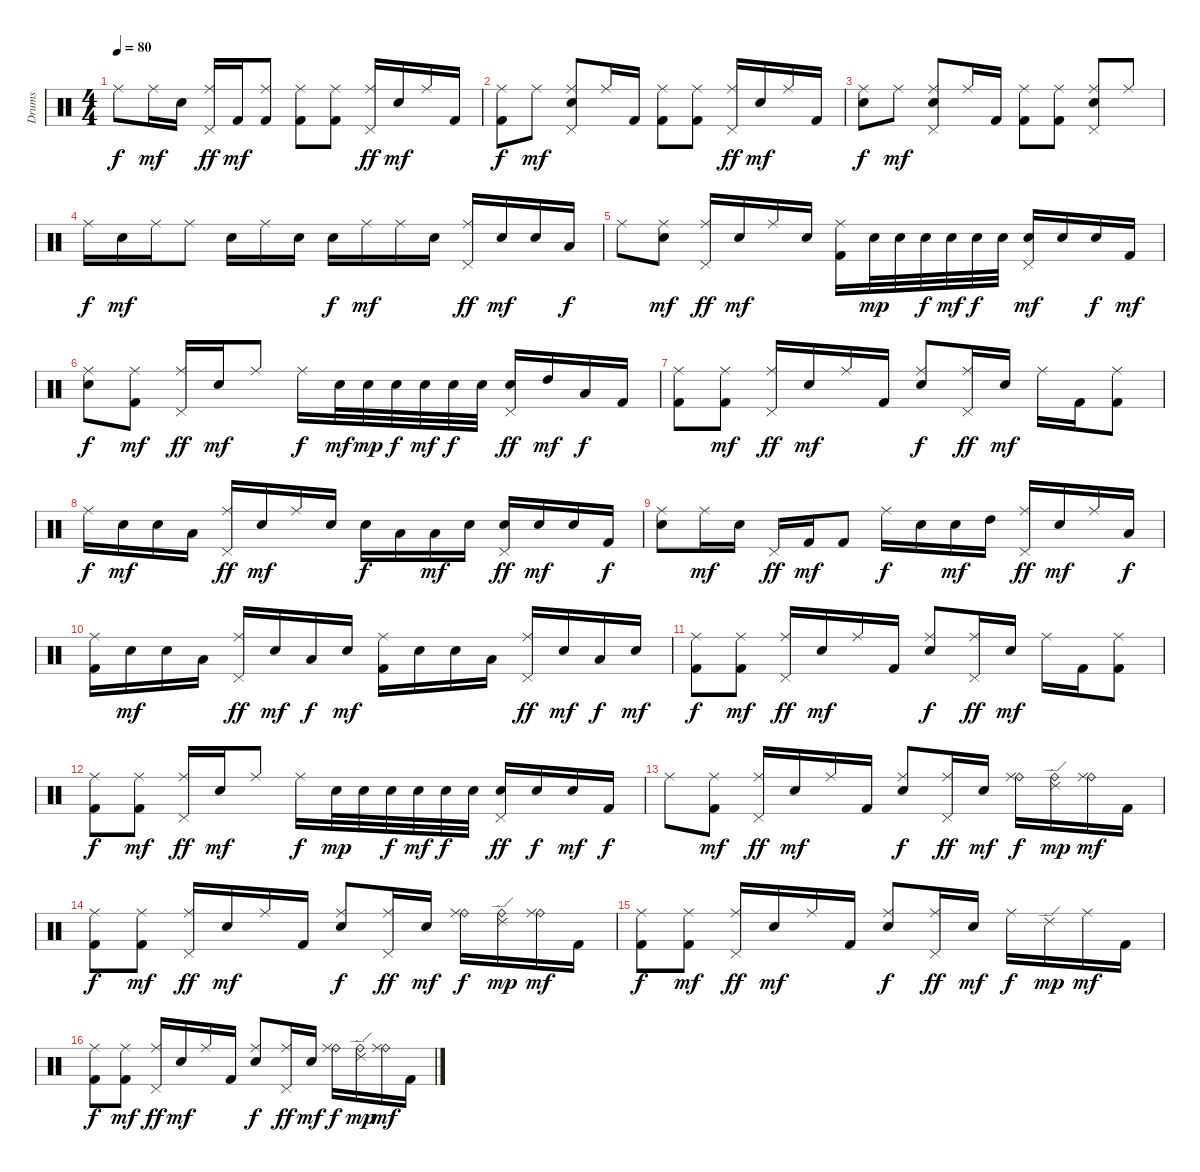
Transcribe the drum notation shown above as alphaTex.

\track ("Drums" "Drums") {instrument percussion}
\staff {score}
\articulation defaults
\ts (4 4)
\tempo 80
\clef neutral
\ks c "Ride (middle)".8{dy f} "Ride (middle)".16{dy mf} "Electric Snare (hit)".16
("Ride (middle)" "Pedal Hi-Hat (hit)").16{dy ff} "Kick (hit) 2".16{dy mf} ("Ride (middle)" "Kick (hit) 2").8 ("Ride (middle)" "Kick (hit) 2").8 ("Ride (middle)" "Kick (hit) 2").8 ("Ride (middle)" "Pedal Hi-Hat (hit)").16{dy ff} "Electric Snare (hit)".16{dy mf} "Ride (middle)".16 "Kick (hit) 2".16 |
("Ride (middle)" "Kick (hit) 2").8{dy f} "Ride (middle)".8{dy mf} ("Ride (middle)" "Pedal Hi-Hat (hit)" "Electric Snare (hit)").8 "Ride (middle)".16 "Kick (hit) 2".16 ("Ride (middle)" "Kick (hit) 2").8 ("Ride (middle)" "Kick (hit) 2").8 ("Ride (middle)" "Pedal Hi-Hat (hit)").16{dy ff} "Electric Snare (hit)".16{dy mf} "Ride (middle)".16 "Kick (hit) 2".16 |
("Ride (middle)" "Electric Snare (hit)").8{dy f} "Ride (middle)".8{dy mf} ("Ride (middle)" "Pedal Hi-Hat (hit)" "Electric Snare (hit)").8 "Ride (middle)".16 "Kick (hit) 2".16 ("Ride (middle)" "Kick (hit) 2").8 ("Ride (middle)" "Kick (hit) 2").8 ("Ride (middle)" "Pedal Hi-Hat (hit)" "Electric Snare (hit)").8 "Ride (middle)".8 |
"Ride (middle)".16{dy f} "Electric Snare (hit)".16{dy mf} "Ride (middle)".16 "Ride (middle)".8 "Electric Snare (hit)".16 "Ride (middle)".16 "Electric Snare (hit)".16 "Electric Snare (hit)".16{dy f} "Ride (middle)".16{dy mf} "Ride (middle)".16 "Electric Snare (hit)".16 ("Ride (middle)" "Pedal Hi-Hat (hit)").16{dy ff} "Electric Snare (hit)".16{dy mf} "Electric Snare (hit)".16 "Low Tom (hit)".16{dy f} |
"Ride (middle)".8 ("Ride (middle)" "Electric Snare (hit)").8{dy mf} ("Ride (middle)" "Pedal Hi-Hat (hit)").16{dy ff} "Electric Snare (hit)".16{dy mf} "Ride (middle)".16 "Electric Snare (hit)".16 ("Ride (middle)" "Kick (hit) 2").16 "Electric Snare (hit)".32{dy mp} "Electric Snare (hit)".32 "Electric Snare (hit)".32{dy f} "Electric Snare (hit)".32{dy mf} "Electric Snare (hit)".32{dy f} "Electric Snare (hit)".32 ("Pedal Hi-Hat (hit)" "Electric Snare (hit)").16{dy mf} "Electric Snare (hit)".16 "Electric Snare (hit)".16{dy f} "Kick (hit) 2".16{dy mf} |
("Ride (middle)" "Electric Snare (hit)").8{dy f} ("Ride (middle)" "Kick (hit) 2").8{dy mf} ("Ride (middle)" "Pedal Hi-Hat (hit)").16{dy ff} "Electric Snare (hit)".16{dy mf} "Ride (middle)".8 "Ride (middle)".16{dy f} "Electric Snare (hit)".32{dy mf} "Electric Snare (hit)".32{dy mp} "Electric Snare (hit)".32{dy f} "Electric Snare (hit)".32{dy mf} "Electric Snare (hit)".32{dy f} "Electric Snare (hit)".32 ("Pedal Hi-Hat (hit)" "Electric Snare (hit)").16{dy ff} "High Tom (hit)".16{dy mf} "Low Tom (hit)".16{dy f} "Kick (hit) 2".16 |
("Ride (middle)" "Kick (hit) 2").8 ("Ride (middle)" "Kick (hit) 2").8{dy mf} ("Ride (middle)" "Pedal Hi-Hat (hit)").16{dy ff} "Electric Snare (hit)".16{dy mf} "Ride (middle)".16 "Kick (hit) 2".16 ("Ride (middle)" "Electric Snare (hit)").8{dy f} ("Ride (middle)" "Pedal Hi-Hat (hit)").16{dy ff} "Electric Snare (hit)".16{dy mf} "Ride (middle)".16 "Kick (hit) 2".16 ("Ride (middle)" "Kick (hit) 2").8 |
"Ride (middle)".16{dy f} "Electric Snare (hit)".16{dy mf} "Electric Snare (hit)".16 "Low Tom (hit)".16 ("Ride (middle)" "Pedal Hi-Hat (hit)").16{dy ff} "Electric Snare (hit)".16{dy mf} "Ride (middle)".16 "Electric Snare (hit)".16 "Electric Snare (hit)".16{dy f} "Low Floor Tom (hit)".16 "Low Tom (hit)".16{dy mf} "Electric Snare (hit)".16 ("Pedal Hi-Hat (hit)" "Electric Snare (hit)").16{dy ff} "Electric Snare (hit)".16{dy mf} "Electric Snare (hit)".16 "Kick (hit) 2".16{dy f} |
("Ride (middle)" "Electric Snare (hit)").8 "Ride (middle)".16{dy mf} "Electric Snare (hit)".16 "Pedal Hi-Hat (hit)".16{dy ff} "Kick (hit) 2".16{dy mf} "Kick (hit) 2".8 "Ride (middle)".16{dy f} "Electric Snare (hit)".16 "Electric Snare (hit)".16{dy mf} "High Tom (hit)".16 ("Ride (middle)" "Pedal Hi-Hat (hit)").16{dy ff} "Electric Snare (hit)".16{dy mf} "Ride (middle)".16 "Low Floor Tom (hit)".16{dy f} |
("Ride (middle)" "Kick (hit) 2").16 "Electric Snare (hit)".16{dy mf} "Electric Snare (hit)".16 "Low Tom (hit)".16 ("Ride (middle)" "Pedal Hi-Hat (hit)").16{dy ff} "Electric Snare (hit)".16{dy mf} "Low Floor Tom (hit)".16{dy f} "Electric Snare (hit)".16{dy mf} ("Ride (middle)" "Kick (hit) 2").16 "Electric Snare (hit)".16 "Electric Snare (hit)".16 "Low Tom (hit)".16 ("Ride (middle)" "Pedal Hi-Hat (hit)").16{dy ff} "Electric Snare (hit)".16{dy mf} "Low Floor Tom (hit)".16{dy f} "Electric Snare (hit)".16{dy mf} |
("Ride (middle)" "Kick (hit) 2").8{dy f} ("Ride (middle)" "Kick (hit) 2").8{dy mf} ("Ride (middle)" "Pedal Hi-Hat (hit)").16{dy ff} "Electric Snare (hit)".16{dy mf} "Ride (middle)".16 "Kick (hit) 2".16 ("Ride (middle)" "Electric Snare (hit)").8{dy f} ("Ride (middle)" "Pedal Hi-Hat (hit)").16{dy ff} "Electric Snare (hit)".16{dy mf} "Ride (middle)".16 "Kick (hit) 2".16 ("Ride (middle)" "Kick (hit) 2").8 |
("Ride (middle)" "Kick (hit) 2").8{dy f} ("Ride (middle)" "Kick (hit) 2").8{dy mf} ("Ride (middle)" "Pedal Hi-Hat (hit)").16{dy ff} "Electric Snare (hit)".16{dy mf} "Ride (middle)".8 "Ride (middle)".16{dy f} "Electric Snare (hit)".32{dy mp} "Electric Snare (hit)".32 "Electric Snare (hit)".32{dy f} "Electric Snare (hit)".32{dy mf} "Electric Snare (hit)".32{dy f} "Electric Snare (hit)".32 ("Pedal Hi-Hat (hit)" "Electric Snare (hit)").16{dy ff} "Electric Snare (hit)".16{dy f} "Electric Snare (hit)".16{dy mf} "Kick (hit) 2".16{dy f} |
"Ride (middle)".8 ("Ride (middle)" "Kick (hit) 2").8{dy mf} ("Ride (middle)" "Pedal Hi-Hat (hit)").16{dy ff} "Electric Snare (hit)".16{dy mf} "Ride (middle)".16 "Kick (hit) 2".16 ("Ride (middle)" "Electric Snare (hit)").8{dy f} ("Ride (middle)" "Pedal Hi-Hat (hit)").16{dy ff} "Electric Snare (hit)".16{dy mf} ("Ride (bell)" "Ride (middle)").16{dy f} ("Ride (bell)" "Ride (edge) 2").16{dy mp} ("Ride (bell)" "Ride (middle)").16{dy mf} "Kick (hit) 2".16 |
("Ride (middle)" "Kick (hit) 2").8{dy f} ("Ride (middle)" "Kick (hit) 2").8{dy mf} ("Ride (middle)" "Pedal Hi-Hat (hit)").16{dy ff} "Electric Snare (hit)".16{dy mf} "Ride (middle)".16 "Kick (hit) 2".16 ("Ride (middle)" "Electric Snare (hit)").8{dy f} ("Ride (middle)" "Pedal Hi-Hat (hit)").16{dy ff} "Electric Snare (hit)".16{dy mf} ("Ride (bell)" "Ride (middle)").16{dy f} ("Ride (bell)" "Ride (edge) 2").16{dy mp} ("Ride (bell)" "Ride (middle)").16{dy mf} "Kick (hit) 2".16 |
("Ride (middle)" "Kick (hit) 2").8{dy f} ("Ride (middle)" "Kick (hit) 2").8{dy mf} ("Ride (middle)" "Pedal Hi-Hat (hit)").16{dy ff} "Electric Snare (hit)".16{dy mf} "Ride (middle)".16 "Kick (hit) 2".16 ("Ride (middle)" "Electric Snare (hit)").8{dy f} ("Ride (middle)" "Pedal Hi-Hat (hit)").16{dy ff} "Electric Snare (hit)".16{dy mf} "Ride (middle)".16{dy f} "Ride (edge) 2".16{dy mp} "Ride (middle)".16{dy mf} "Kick (hit) 2".16 |
("Ride (middle)" "Kick (hit) 2").8{dy f} ("Ride (middle)" "Kick (hit) 2").8{dy mf} ("Ride (middle)" "Pedal Hi-Hat (hit)").16{dy ff} "Electric Snare (hit)".16{dy mf} "Ride (middle)".16 "Kick (hit) 2".16 ("Ride (middle)" "Electric Snare (hit)").8{dy f} ("Ride (middle)" "Pedal Hi-Hat (hit)").16{dy ff} "Electric Snare (hit)".16{dy mf} ("Ride (bell)" "Ride (middle)").16{dy f} ("Ride (bell)" "Ride (edge) 2").16{dy mp} ("Ride (bell)" "Ride (middle)").16{dy mf} "Kick (hit) 2".16
